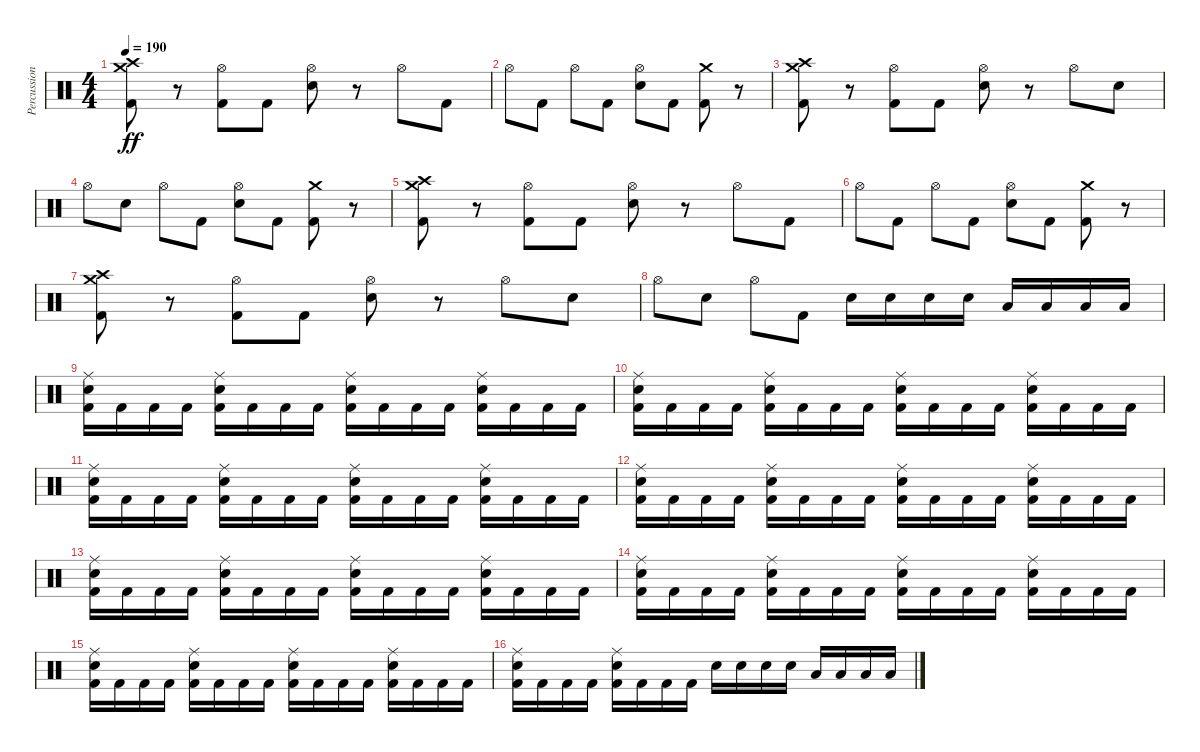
\track ("Percussion" "Percussion") {instrument percussion}
\staff {score}
\articulation defaults
\ts (4 4)
\tempo 190
\clef neutral
\ks c
("Kick (hit) 2" "Crash high (hit)" "Crash medium (hit)").8{dy ff} r.8 ("Kick (hit) 2" "Hi-Hat (open)").8 "Kick (hit) 2".8 ("Electric Snare (hit)" "Hi-Hat (open)").8 r.8 "Hi-Hat (open)".8 "Kick (hit) 2".8 |
"Hi-Hat (open)".8 "Kick (hit) 2".8 "Hi-Hat (open)".8 "Kick (hit) 2".8 ("Electric Snare (hit)" "Hi-Hat (open)").8 "Kick (hit) 2".8 ("Kick (hit) 2" "Crash medium (hit)").8 r.8 |
("Kick (hit) 2" "Crash high (hit)" "Crash medium (hit)").8 r.8 ("Kick (hit) 2" "Hi-Hat (open)").8 "Kick (hit) 2".8 ("Electric Snare (hit)" "Hi-Hat (open)").8 r.8 "Hi-Hat (open)".8 "Electric Snare (hit)".8 |
"Hi-Hat (open)".8 "Electric Snare (hit)".8 "Hi-Hat (open)".8 "Kick (hit) 2".8 ("Electric Snare (hit)" "Hi-Hat (open)").8 "Kick (hit) 2".8 ("Kick (hit) 2" "Crash medium (hit)").8 r.8 |
("Kick (hit) 2" "Crash high (hit)" "Crash medium (hit)").8 r.8 ("Kick (hit) 2" "Hi-Hat (open)").8 "Kick (hit) 2".8 ("Electric Snare (hit)" "Hi-Hat (open)").8 r.8 "Hi-Hat (open)".8 "Kick (hit) 2".8 |
"Hi-Hat (open)".8 "Kick (hit) 2".8 "Hi-Hat (open)".8 "Kick (hit) 2".8 ("Electric Snare (hit)" "Hi-Hat (open)").8 "Kick (hit) 2".8 ("Kick (hit) 2" "Crash medium (hit)").8 r.8 |
("Kick (hit) 2" "Crash high (hit)" "Crash medium (hit)").8 r.8 ("Kick (hit) 2" "Hi-Hat (open)").8 "Kick (hit) 2".8 ("Electric Snare (hit)" "Hi-Hat (open)").8 r.8 "Hi-Hat (open)".8 "Electric Snare (hit)".8 |
"Hi-Hat (open)".8 "Electric Snare (hit)".8 "Hi-Hat (open)".8 "Kick (hit) 2".8 "Electric Snare (hit)".16 "Electric Snare (hit)".16 "Electric Snare (hit)".16 "Electric Snare (hit)".16 "Low Tom (hit)".16 "Low Tom (hit)".16 "Low Tom (hit)".16 "Low Tom (hit)".16 |
("Kick (hit) 2" "Electric Snare (hit)" "Ride (middle)").16 "Kick (hit) 2".16 "Kick (hit) 2".16 "Kick (hit) 2".16 ("Kick (hit) 2" "Electric Snare (hit)" "Ride (middle)").16 "Kick (hit) 2".16 "Kick (hit) 2".16 "Kick (hit) 2".16 ("Kick (hit) 2" "Electric Snare (hit)" "Ride (middle)").16 "Kick (hit) 2".16 "Kick (hit) 2".16 "Kick (hit) 2".16 ("Kick (hit) 2" "Electric Snare (hit)" "Ride (middle)").16 "Kick (hit) 2".16 "Kick (hit) 2".16 "Kick (hit) 2".16 |
("Kick (hit) 2" "Electric Snare (hit)" "Ride (middle)").16 "Kick (hit) 2".16 "Kick (hit) 2".16 "Kick (hit) 2".16 ("Kick (hit) 2" "Electric Snare (hit)" "Ride (middle)").16 "Kick (hit) 2".16 "Kick (hit) 2".16 "Kick (hit) 2".16 ("Kick (hit) 2" "Electric Snare (hit)" "Ride (middle)").16 "Kick (hit) 2".16 "Kick (hit) 2".16 "Kick (hit) 2".16 ("Kick (hit) 2" "Electric Snare (hit)" "Ride (middle)").16 "Kick (hit) 2".16 "Kick (hit) 2".16 "Kick (hit) 2".16 |
("Kick (hit) 2" "Electric Snare (hit)" "Ride (middle)").16 "Kick (hit) 2".16 "Kick (hit) 2".16 "Kick (hit) 2".16 ("Kick (hit) 2" "Electric Snare (hit)" "Ride (middle)").16 "Kick (hit) 2".16 "Kick (hit) 2".16 "Kick (hit) 2".16 ("Kick (hit) 2" "Electric Snare (hit)" "Ride (middle)").16 "Kick (hit) 2".16 "Kick (hit) 2".16 "Kick (hit) 2".16 ("Kick (hit) 2" "Electric Snare (hit)" "Ride (middle)").16 "Kick (hit) 2".16 "Kick (hit) 2".16 "Kick (hit) 2".16 |
("Kick (hit) 2" "Electric Snare (hit)" "Ride (middle)").16 "Kick (hit) 2".16 "Kick (hit) 2".16 "Kick (hit) 2".16 ("Kick (hit) 2" "Electric Snare (hit)" "Ride (middle)").16 "Kick (hit) 2".16 "Kick (hit) 2".16 "Kick (hit) 2".16 ("Kick (hit) 2" "Electric Snare (hit)" "Ride (middle)").16 "Kick (hit) 2".16 "Kick (hit) 2".16 "Kick (hit) 2".16 ("Kick (hit) 2" "Electric Snare (hit)" "Ride (middle)").16 "Kick (hit) 2".16 "Kick (hit) 2".16 "Kick (hit) 2".16 |
("Kick (hit) 2" "Electric Snare (hit)" "Ride (middle)").16 "Kick (hit) 2".16 "Kick (hit) 2".16 "Kick (hit) 2".16 ("Kick (hit) 2" "Electric Snare (hit)" "Ride (middle)").16 "Kick (hit) 2".16 "Kick (hit) 2".16 "Kick (hit) 2".16 ("Kick (hit) 2" "Electric Snare (hit)" "Ride (middle)").16 "Kick (hit) 2".16 "Kick (hit) 2".16 "Kick (hit) 2".16 ("Kick (hit) 2" "Electric Snare (hit)" "Ride (middle)").16 "Kick (hit) 2".16 "Kick (hit) 2".16 "Kick (hit) 2".16 |
("Kick (hit) 2" "Electric Snare (hit)" "Ride (middle)").16 "Kick (hit) 2".16 "Kick (hit) 2".16 "Kick (hit) 2".16 ("Kick (hit) 2" "Electric Snare (hit)" "Ride (middle)").16 "Kick (hit) 2".16 "Kick (hit) 2".16 "Kick (hit) 2".16 ("Kick (hit) 2" "Electric Snare (hit)" "Ride (middle)").16 "Kick (hit) 2".16 "Kick (hit) 2".16 "Kick (hit) 2".16 ("Kick (hit) 2" "Electric Snare (hit)" "Ride (middle)").16 "Kick (hit) 2".16 "Kick (hit) 2".16 "Kick (hit) 2".16 |
("Kick (hit) 2" "Electric Snare (hit)" "Ride (middle)").16 "Kick (hit) 2".16 "Kick (hit) 2".16 "Kick (hit) 2".16 ("Kick (hit) 2" "Electric Snare (hit)" "Ride (middle)").16 "Kick (hit) 2".16 "Kick (hit) 2".16 "Kick (hit) 2".16 ("Kick (hit) 2" "Electric Snare (hit)" "Ride (middle)").16 "Kick (hit) 2".16 "Kick (hit) 2".16 "Kick (hit) 2".16 ("Kick (hit) 2" "Electric Snare (hit)" "Ride (middle)").16 "Kick (hit) 2".16 "Kick (hit) 2".16 "Kick (hit) 2".16 |
("Kick (hit) 2" "Electric Snare (hit)" "Ride (middle)").16 "Kick (hit) 2".16 "Kick (hit) 2".16 "Kick (hit) 2".16 ("Kick (hit) 2" "Electric Snare (hit)" "Ride (middle)").16 "Kick (hit) 2".16 "Kick (hit) 2".16 "Kick (hit) 2".16 "Electric Snare (hit)".16 "Electric Snare (hit)".16 "Electric Snare (hit)".16 "Electric Snare (hit)".16 "Low Tom (hit)".16 "Low Tom (hit)".16 "Low Tom (hit)".16 "Low Tom (hit)".16
